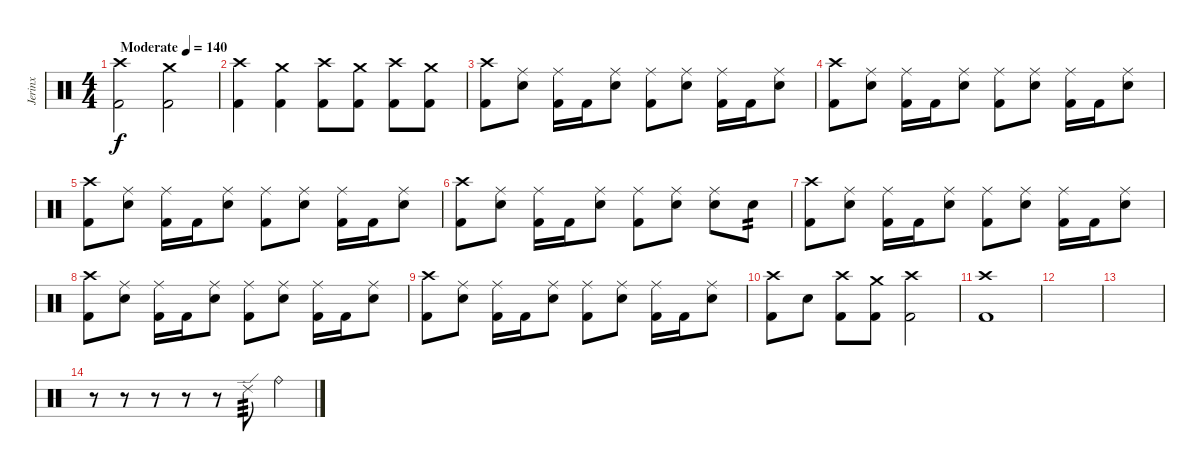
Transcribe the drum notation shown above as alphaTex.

\track ("Jerinx" "Jerinx") {instrument percussion}
\staff {score}
\articulation defaults
\ts (4 4)
\tempo (140 "Moderate")
\clef neutral
\ks c
("Crash high (hit)" "Kick (hit) 2").2{dy f} ("Crash medium (hit)" "Kick (hit) 2").2 |
("Crash high (hit)" "Kick (hit) 2").4 ("Crash medium (hit)" "Kick (hit) 2").4 ("Crash high (hit)" "Kick (hit) 2").8 ("Crash medium (hit)" "Kick (hit) 2").8 ("Crash high (hit)" "Kick (hit) 2").8 ("Crash medium (hit)" "Kick (hit) 2").8 |
("Crash high (hit)" "Kick (hit) 2").8 ("Ride (middle)" "Electric Snare (hit)").8 ("Ride (middle)" "Kick (hit) 2").16 "Kick (hit) 2".16 ("Ride (middle)" "Electric Snare (hit)").8 ("Ride (middle)" "Kick (hit) 2").8 ("Ride (middle)" "Electric Snare (hit)").8 ("Ride (middle)" "Kick (hit) 2").16 "Kick (hit) 2".16 ("Ride (middle)" "Electric Snare (hit)").8 |
("Crash high (hit)" "Kick (hit) 2").8 ("Ride (middle)" "Electric Snare (hit)").8 ("Ride (middle)" "Kick (hit) 2").16 "Kick (hit) 2".16 ("Ride (middle)" "Electric Snare (hit)").8 ("Ride (middle)" "Kick (hit) 2").8 ("Ride (middle)" "Electric Snare (hit)").8 ("Ride (middle)" "Kick (hit) 2").16 "Kick (hit) 2".16 ("Ride (middle)" "Electric Snare (hit)").8 |
("Crash high (hit)" "Kick (hit) 2").8 ("Ride (middle)" "Electric Snare (hit)").8 ("Ride (middle)" "Kick (hit) 2").16 "Kick (hit) 2".16 ("Ride (middle)" "Electric Snare (hit)").8 ("Ride (middle)" "Kick (hit) 2").8 ("Ride (middle)" "Electric Snare (hit)").8 ("Ride (middle)" "Kick (hit) 2").16 "Kick (hit) 2".16 ("Ride (middle)" "Electric Snare (hit)").8 |
("Crash high (hit)" "Kick (hit) 2").8 ("Ride (middle)" "Electric Snare (hit)").8 ("Ride (middle)" "Kick (hit) 2").16 "Kick (hit) 2".16 ("Ride (middle)" "Electric Snare (hit)").8 ("Ride (middle)" "Kick (hit) 2").8 ("Ride (middle)" "Electric Snare (hit)").8 ("Ride (middle)" "Electric Snare (hit)").8 "Electric Snare (hit)".8{tp 2} |
("Crash high (hit)" "Kick (hit) 2").8 ("Ride (middle)" "Electric Snare (hit)").8 ("Ride (middle)" "Kick (hit) 2").16 "Kick (hit) 2".16 ("Ride (middle)" "Electric Snare (hit)").8 ("Ride (middle)" "Kick (hit) 2").8 ("Ride (middle)" "Electric Snare (hit)").8 ("Ride (middle)" "Kick (hit) 2").16 "Kick (hit) 2".16 ("Ride (middle)" "Electric Snare (hit)").8 |
("Crash high (hit)" "Kick (hit) 2").8 ("Ride (middle)" "Electric Snare (hit)").8 ("Ride (middle)" "Kick (hit) 2").16 "Kick (hit) 2".16 ("Ride (middle)" "Electric Snare (hit)").8 ("Ride (middle)" "Kick (hit) 2").8 ("Ride (middle)" "Electric Snare (hit)").8 ("Ride (middle)" "Kick (hit) 2").16 "Kick (hit) 2".16 ("Ride (middle)" "Electric Snare (hit)").8 |
("Crash high (hit)" "Kick (hit) 2").8 ("Ride (middle)" "Electric Snare (hit)").8 ("Ride (middle)" "Kick (hit) 2").16 "Kick (hit) 2".16 ("Ride (middle)" "Electric Snare (hit)").8 ("Ride (middle)" "Kick (hit) 2").8 ("Ride (middle)" "Electric Snare (hit)").8 ("Ride (middle)" "Kick (hit) 2").16 "Kick (hit) 2".16 ("Ride (middle)" "Electric Snare (hit)").8 |
("Crash high (hit)" "Kick (hit) 2").8 "Electric Snare (hit)".8 ("Crash high (hit)" "Kick (hit) 2").8 ("Crash medium (hit)" "Kick (hit) 2").8 ("Crash high (hit)" "Kick (hit) 2").2 |
("Crash high (hit)" "Kick (hit) 2").1 |
|
|
r.8 r.8 r.8 r.8 r.8 "Ride (edge) 2".8{tp 3} "Ride (bell)".4
